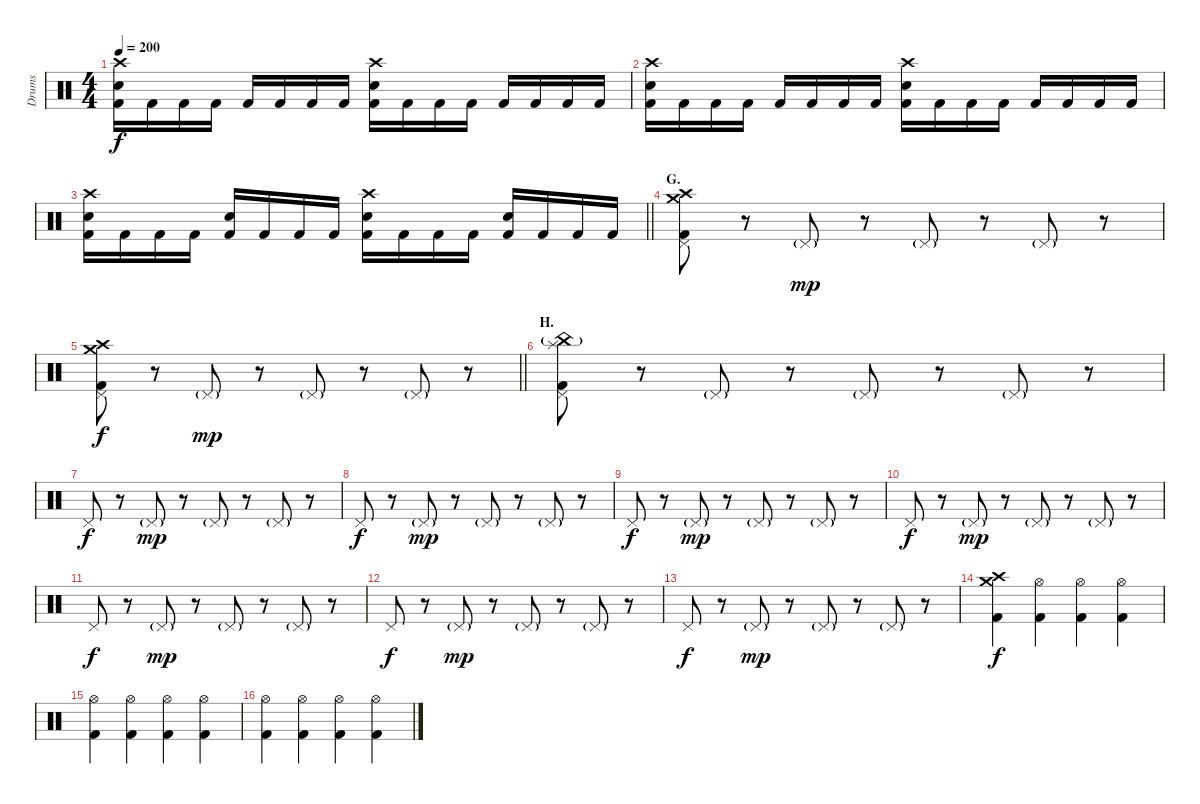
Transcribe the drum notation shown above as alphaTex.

\track ("Drums" "Drums") {instrument percussion}
\staff {score}
\articulation defaults
\ts (4 4)
\tempo 200
\clef neutral
\ks c
("Crash high (hit)" "Electric Snare (hit)" "Kick (hit) 2").16{dy f} "Kick (hit) 2".16 "Kick (hit) 2".16 "Kick (hit) 2".16 "Kick (hit) 2".16 "Kick (hit) 2".16 "Kick (hit) 2".16 "Kick (hit) 2".16 ("Crash high (hit)" "Electric Snare (hit)" "Kick (hit) 2").16 "Kick (hit) 2".16 "Kick (hit) 2".16 "Kick (hit) 2".16 "Kick (hit) 2".16 "Kick (hit) 2".16 "Kick (hit) 2".16 "Kick (hit) 2".16 |
("Crash high (hit)" "Electric Snare (hit)" "Kick (hit) 2").16 "Kick (hit) 2".16 "Kick (hit) 2".16 "Kick (hit) 2".16 "Kick (hit) 2".16 "Kick (hit) 2".16 "Kick (hit) 2".16 "Kick (hit) 2".16 ("Crash high (hit)" "Electric Snare (hit)" "Kick (hit) 2").16 "Kick (hit) 2".16 "Kick (hit) 2".16 "Kick (hit) 2".16 "Kick (hit) 2".16 "Kick (hit) 2".16 "Kick (hit) 2".16 "Kick (hit) 2".16 |
\barLineRight lightlight
("Crash high (hit)" "Electric Snare (hit)" "Kick (hit) 2").16 "Kick (hit) 2".16 "Kick (hit) 2".16 "Kick (hit) 2".16 ("Electric Snare (hit)" "Kick (hit) 2").16 "Kick (hit) 2".16 "Kick (hit) 2".16 "Kick (hit) 2".16 ("Crash high (hit)" "Electric Snare (hit)" "Kick (hit) 2").16 "Kick (hit) 2".16 "Kick (hit) 2".16 "Kick (hit) 2".16 ("Electric Snare (hit)" "Kick (hit) 2").16 "Kick (hit) 2".16 "Kick (hit) 2".16 "Kick (hit) 2".16 |
\section ("" "G.")
("Crash medium (hit)" "Crash high (hit)" "Pedal Hi-Hat (hit)" "Kick (hit) 2").8 r.8 "Pedal Hi-Hat (hit)"{g}.8{dy mp} r.8 "Pedal Hi-Hat (hit)"{g}.8 r.8 "Pedal Hi-Hat (hit)"{g}.8 r.8 |
\barLineRight lightlight
("Crash medium (hit)" "Crash high (hit)" "Pedal Hi-Hat (hit)" "Kick (hit) 2").8{dy f} r.8 "Pedal Hi-Hat (hit)"{g}.8{dy mp} r.8 "Pedal Hi-Hat (hit)"{g}.8 r.8 "Pedal Hi-Hat (hit)"{g}.8 r.8 |
\section ("" "H.")
("China (hit)"{g} "Splash (hit)" "Pedal Hi-Hat (hit)" "Kick (hit) 2").8 r.8 "Pedal Hi-Hat (hit)"{g}.8 r.8 "Pedal Hi-Hat (hit)"{g}.8 r.8 "Pedal Hi-Hat (hit)"{g}.8 r.8 |
"Pedal Hi-Hat (hit)".8{dy f} r.8 "Pedal Hi-Hat (hit)"{g}.8{dy mp} r.8 "Pedal Hi-Hat (hit)"{g}.8 r.8 "Pedal Hi-Hat (hit)"{g}.8 r.8 |
"Pedal Hi-Hat (hit)".8{dy f} r.8 "Pedal Hi-Hat (hit)"{g}.8{dy mp} r.8 "Pedal Hi-Hat (hit)"{g}.8 r.8 "Pedal Hi-Hat (hit)"{g}.8 r.8 |
"Pedal Hi-Hat (hit)".8{dy f} r.8 "Pedal Hi-Hat (hit)"{g}.8{dy mp} r.8 "Pedal Hi-Hat (hit)"{g}.8 r.8 "Pedal Hi-Hat (hit)"{g}.8 r.8 |
"Pedal Hi-Hat (hit)".8{dy f} r.8 "Pedal Hi-Hat (hit)"{g}.8{dy mp} r.8 "Pedal Hi-Hat (hit)"{g}.8 r.8 "Pedal Hi-Hat (hit)"{g}.8 r.8 |
"Pedal Hi-Hat (hit)".8{dy f} r.8 "Pedal Hi-Hat (hit)"{g}.8{dy mp} r.8 "Pedal Hi-Hat (hit)"{g}.8 r.8 "Pedal Hi-Hat (hit)"{g}.8 r.8 |
"Pedal Hi-Hat (hit)".8{dy f} r.8 "Pedal Hi-Hat (hit)"{g}.8{dy mp} r.8 "Pedal Hi-Hat (hit)"{g}.8 r.8 "Pedal Hi-Hat (hit)"{g}.8 r.8 |
"Pedal Hi-Hat (hit)".8{dy f} r.8 "Pedal Hi-Hat (hit)"{g}.8{dy mp} r.8 "Pedal Hi-Hat (hit)"{g}.8 r.8 "Pedal Hi-Hat (hit)"{g}.8 r.8 |
("Crash medium (hit)" "Crash high (hit)" "Kick (hit) 2").4{dy f} ("Hi-Hat (open)" "Kick (hit) 2").4 ("Hi-Hat (open)" "Kick (hit) 2").4 ("Hi-Hat (open)" "Kick (hit) 2").4 |
("Hi-Hat (open)" "Kick (hit) 2").4 ("Hi-Hat (open)" "Kick (hit) 2").4 ("Hi-Hat (open)" "Kick (hit) 2").4 ("Hi-Hat (open)" "Kick (hit) 2").4 |
("Hi-Hat (open)" "Kick (hit) 2").4 ("Hi-Hat (open)" "Kick (hit) 2").4 ("Hi-Hat (open)" "Kick (hit) 2").4 ("Hi-Hat (open)" "Kick (hit) 2").4
